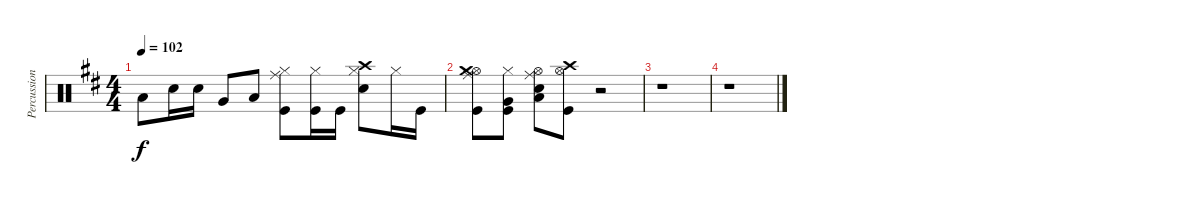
\track ("Percussion" "Percussion") {instrument percussion}
\staff {score}
\articulation defaults
\ts (4 4)
\tempo 102
\clef neutral
\ks d "Low Tom (hit)".8{dy f} "Snare (hit) 2".16 "Snare (hit) 2".16 "Very Low Tom (hit)".8 "Low Floor Tom (hit)".8
("Hi-Hat (closed)" "Ride (middle)" "Kick (hit)").8 ("Hi-Hat (closed)" "Kick (hit)").16 "Kick (hit)".16 ("Hi-Hat (closed)" "Crash high (hit)" "Snare (hit) 2").8 "Hi-Hat (closed)".16 "Kick (hit)".16 |
("Hi-Hat (open)" "Crash medium (hit)" "Ride (middle)" "Kick (hit)").8 ("Hi-Hat (closed)" "Very Low Tom (hit)" "Kick (hit)").8 ("Hi-Hat (open)" "Ride (middle)" "Low Floor Tom (hit)" "Snare (hit) 2").8 ("Hi-Hat (open)" "Crash high (hit)" "Kick (hit)").8 r.2 |
r.1 |
r.1
